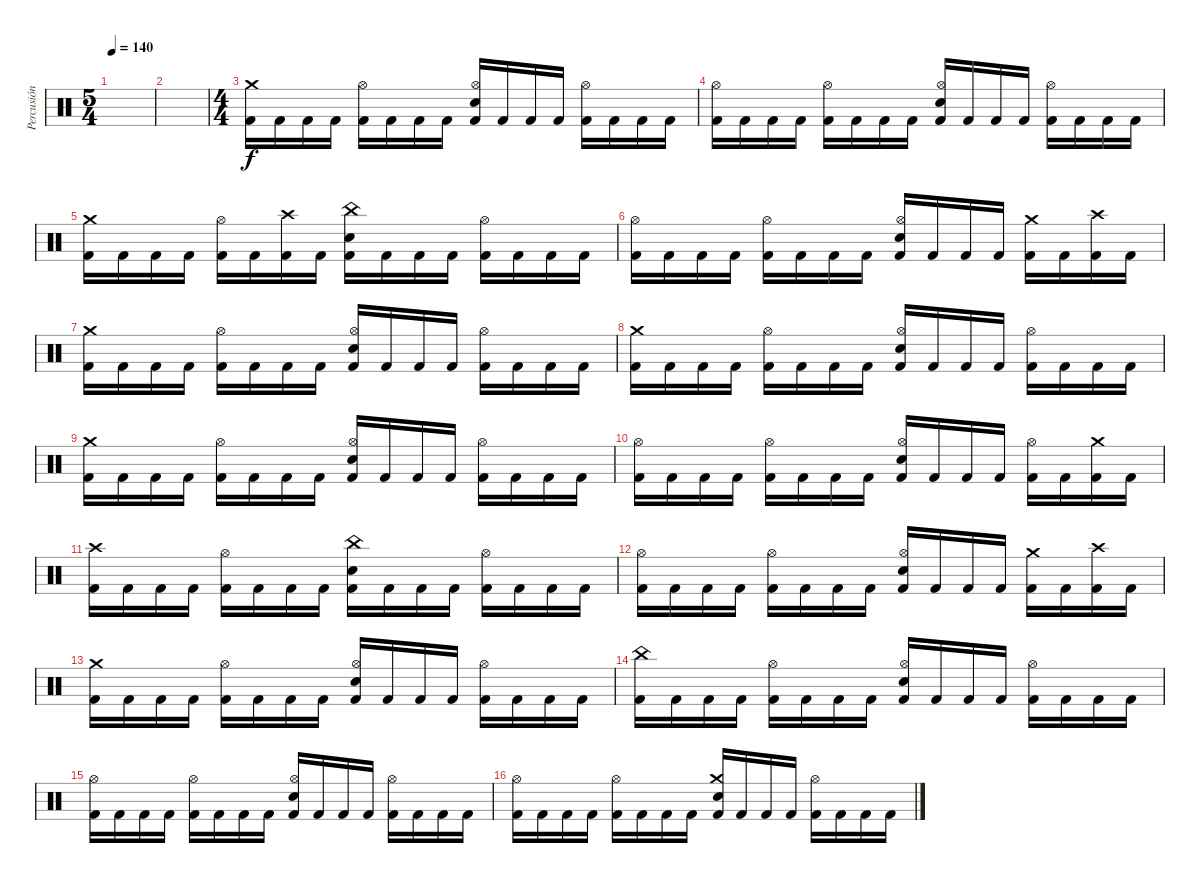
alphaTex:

\track ("Percusión" "Percusión") {instrument percussion}
\staff {score}
\articulation defaults
\ts (5 4)
\tempo 140
\clef neutral
\ks c
|
|
\ts (4 4)
("Kick (hit) 2" "Crash medium (hit)").16 "Kick (hit) 2".16 "Kick (hit) 2".16 "Kick (hit) 2".16 ("Kick (hit) 2" "Hi-Hat (open)").16 "Kick (hit) 2".16 "Kick (hit) 2".16 "Kick (hit) 2".16 ("Kick (hit) 2" "Electric Snare (hit)" "Hi-Hat (open)").16 "Kick (hit) 2".16 "Kick (hit) 2".16 "Kick (hit) 2".16 ("Kick (hit) 2" "Hi-Hat (open)").16 "Kick (hit) 2".16 "Kick (hit) 2".16 "Kick (hit) 2".16 |
("Kick (hit) 2" "Hi-Hat (open)").16 "Kick (hit) 2".16 "Kick (hit) 2".16 "Kick (hit) 2".16 ("Kick (hit) 2" "Hi-Hat (open)").16 "Kick (hit) 2".16 "Kick (hit) 2".16 "Kick (hit) 2".16 ("Kick (hit) 2" "Electric Snare (hit)" "Hi-Hat (open)").16 "Kick (hit) 2".16 "Kick (hit) 2".16 "Kick (hit) 2".16 ("Kick (hit) 2" "Hi-Hat (open)").16 "Kick (hit) 2".16 "Kick (hit) 2".16 "Kick (hit) 2".16 |
("Kick (hit) 2" "Crash medium (hit)").16 "Kick (hit) 2".16 "Kick (hit) 2".16 "Kick (hit) 2".16 ("Kick (hit) 2" "Hi-Hat (open)").16 "Kick (hit) 2".16 ("Kick (hit) 2" "Crash high (hit)").16 "Kick (hit) 2".16 ("Kick (hit) 2" "Electric Snare (hit)" "China (hit)").16 "Kick (hit) 2".16 "Kick (hit) 2".16 "Kick (hit) 2".16 ("Kick (hit) 2" "Hi-Hat (open)").16 "Kick (hit) 2".16 "Kick (hit) 2".16 "Kick (hit) 2".16 |
("Kick (hit) 2" "Hi-Hat (open)").16 "Kick (hit) 2".16 "Kick (hit) 2".16 "Kick (hit) 2".16 ("Kick (hit) 2" "Hi-Hat (open)").16 "Kick (hit) 2".16 "Kick (hit) 2".16 "Kick (hit) 2".16 ("Kick (hit) 2" "Electric Snare (hit)" "Hi-Hat (open)").16 "Kick (hit) 2".16 "Kick (hit) 2".16 "Kick (hit) 2".16 ("Kick (hit) 2" "Crash medium (hit)").16 "Kick (hit) 2".16 ("Kick (hit) 2" "Crash high (hit)").16 "Kick (hit) 2".16 |
("Kick (hit) 2" "Crash medium (hit)").16 "Kick (hit) 2".16 "Kick (hit) 2".16 "Kick (hit) 2".16 ("Kick (hit) 2" "Hi-Hat (open)").16 "Kick (hit) 2".16 "Kick (hit) 2".16 "Kick (hit) 2".16 ("Kick (hit) 2" "Electric Snare (hit)" "Hi-Hat (open)").16 "Kick (hit) 2".16 "Kick (hit) 2".16 "Kick (hit) 2".16 ("Kick (hit) 2" "Hi-Hat (open)").16 "Kick (hit) 2".16 "Kick (hit) 2".16 "Kick (hit) 2".16 |
("Kick (hit) 2" "Crash medium (hit)").16 "Kick (hit) 2".16 "Kick (hit) 2".16 "Kick (hit) 2".16 ("Kick (hit) 2" "Hi-Hat (open)").16 "Kick (hit) 2".16 "Kick (hit) 2".16 "Kick (hit) 2".16 ("Kick (hit) 2" "Electric Snare (hit)" "Hi-Hat (open)").16 "Kick (hit) 2".16 "Kick (hit) 2".16 "Kick (hit) 2".16 ("Kick (hit) 2" "Hi-Hat (open)").16 "Kick (hit) 2".16 "Kick (hit) 2".16 "Kick (hit) 2".16 |
("Kick (hit) 2" "Crash medium (hit)").16 "Kick (hit) 2".16 "Kick (hit) 2".16 "Kick (hit) 2".16 ("Kick (hit) 2" "Hi-Hat (open)").16 "Kick (hit) 2".16 "Kick (hit) 2".16 "Kick (hit) 2".16 ("Kick (hit) 2" "Electric Snare (hit)" "Hi-Hat (open)").16 "Kick (hit) 2".16 "Kick (hit) 2".16 "Kick (hit) 2".16 ("Kick (hit) 2" "Hi-Hat (open)").16 "Kick (hit) 2".16 "Kick (hit) 2".16 "Kick (hit) 2".16 |
("Kick (hit) 2" "Hi-Hat (open)").16 "Kick (hit) 2".16 "Kick (hit) 2".16 "Kick (hit) 2".16 ("Kick (hit) 2" "Hi-Hat (open)").16 "Kick (hit) 2".16 "Kick (hit) 2".16 "Kick (hit) 2".16 ("Kick (hit) 2" "Electric Snare (hit)" "Hi-Hat (open)").16 "Kick (hit) 2".16 "Kick (hit) 2".16 "Kick (hit) 2".16 ("Kick (hit) 2" "Hi-Hat (open)").16 "Kick (hit) 2".16 ("Kick (hit) 2" "Crash medium (hit)").16 "Kick (hit) 2".16 |
("Kick (hit) 2" "Crash high (hit)").16 "Kick (hit) 2".16 "Kick (hit) 2".16 "Kick (hit) 2".16 ("Kick (hit) 2" "Hi-Hat (open)").16 "Kick (hit) 2".16 "Kick (hit) 2".16 "Kick (hit) 2".16 ("Kick (hit) 2" "Electric Snare (hit)" "China (hit)").16 "Kick (hit) 2".16 "Kick (hit) 2".16 "Kick (hit) 2".16 ("Kick (hit) 2" "Hi-Hat (open)").16 "Kick (hit) 2".16 "Kick (hit) 2".16 "Kick (hit) 2".16 |
("Kick (hit) 2" "Hi-Hat (open)").16 "Kick (hit) 2".16 "Kick (hit) 2".16 "Kick (hit) 2".16 ("Kick (hit) 2" "Hi-Hat (open)").16 "Kick (hit) 2".16 "Kick (hit) 2".16 "Kick (hit) 2".16 ("Kick (hit) 2" "Electric Snare (hit)" "Hi-Hat (open)").16 "Kick (hit) 2".16 "Kick (hit) 2".16 "Kick (hit) 2".16 ("Kick (hit) 2" "Crash medium (hit)").16 "Kick (hit) 2".16 ("Kick (hit) 2" "Crash high (hit)").16 "Kick (hit) 2".16 |
("Kick (hit) 2" "Crash medium (hit)").16 "Kick (hit) 2".16 "Kick (hit) 2".16 "Kick (hit) 2".16 ("Kick (hit) 2" "Hi-Hat (open)").16 "Kick (hit) 2".16 "Kick (hit) 2".16 "Kick (hit) 2".16 ("Kick (hit) 2" "Electric Snare (hit)" "Hi-Hat (open)").16 "Kick (hit) 2".16 "Kick (hit) 2".16 "Kick (hit) 2".16 ("Kick (hit) 2" "Hi-Hat (open)").16 "Kick (hit) 2".16 "Kick (hit) 2".16 "Kick (hit) 2".16 |
("Kick (hit) 2" "China (hit)").16 "Kick (hit) 2".16 "Kick (hit) 2".16 "Kick (hit) 2".16 ("Kick (hit) 2" "Hi-Hat (open)").16 "Kick (hit) 2".16 "Kick (hit) 2".16 "Kick (hit) 2".16 ("Kick (hit) 2" "Electric Snare (hit)" "Hi-Hat (open)").16 "Kick (hit) 2".16 "Kick (hit) 2".16 "Kick (hit) 2".16 ("Kick (hit) 2" "Hi-Hat (open)").16 "Kick (hit) 2".16 "Kick (hit) 2".16 "Kick (hit) 2".16 |
("Kick (hit) 2" "Hi-Hat (open)").16 "Kick (hit) 2".16 "Kick (hit) 2".16 "Kick (hit) 2".16 ("Kick (hit) 2" "Hi-Hat (open)").16 "Kick (hit) 2".16 "Kick (hit) 2".16 "Kick (hit) 2".16 ("Kick (hit) 2" "Electric Snare (hit)" "Hi-Hat (open)").16 "Kick (hit) 2".16 "Kick (hit) 2".16 "Kick (hit) 2".16 ("Kick (hit) 2" "Hi-Hat (open)").16 "Kick (hit) 2".16 "Kick (hit) 2".16 "Kick (hit) 2".16 |
("Kick (hit) 2" "Hi-Hat (open)").16 "Kick (hit) 2".16 "Kick (hit) 2".16 "Kick (hit) 2".16 ("Kick (hit) 2" "Hi-Hat (open)").16 "Kick (hit) 2".16 "Kick (hit) 2".16 "Kick (hit) 2".16 ("Kick (hit) 2" "Electric Snare (hit)" "Crash medium (hit)").16 "Kick (hit) 2".16 "Kick (hit) 2".16 "Kick (hit) 2".16 ("Kick (hit) 2" "Hi-Hat (open)").16 "Kick (hit) 2".16 "Kick (hit) 2".16 "Kick (hit) 2".16
